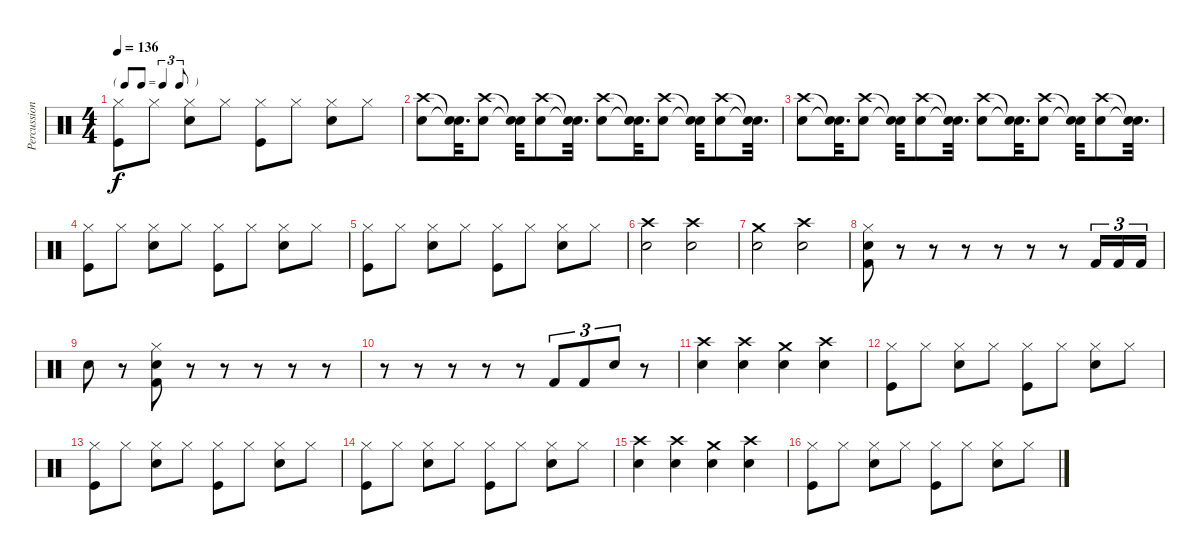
\track ("Percussion" "Percussion") {instrument percussion}
\staff {score}
\articulation defaults
\ts (4 4)
\tf triplet8th
\tempo 136
\clef neutral
\ks c
("Hi-Hat (closed)" "Kick (hit)").8{dy f} "Hi-Hat (closed)".8 ("Hi-Hat (closed)" "Snare (hit) 2").8 "Hi-Hat (closed)".8 ("Hi-Hat (closed)" "Kick (hit)").8 "Hi-Hat (closed)".8 ("Hi-Hat (closed)" "Snare (hit) 2").8 "Hi-Hat (closed)".8 |
("Crash high (hit)" "Snare (hit) 2").8 ("Snare (hit)"{t} "Snare (hit)"{t}).32{d} ("Crash high (hit)" "Snare (hit) 2").8 ("Snare (hit)"{t} "Snare (hit)"{t}).32 ("Crash high (hit)" "Snare (hit) 2").8 ("Snare (hit)"{t} "Snare (hit)"{t}).32{d} ("Crash high (hit)" "Snare (hit) 2").8 ("Snare (hit)"{t} "Snare (hit)"{t}).32{d} ("Crash high (hit)" "Snare (hit) 2").8 ("Snare (hit)"{t} "Snare (hit)"{t}).32 ("Crash high (hit)" "Snare (hit) 2").8 ("Snare (hit)"{t} "Snare (hit)"{t}).32{d} |
("Crash high (hit)" "Snare (hit) 2").8 ("Snare (hit)"{t} "Snare (hit)"{t}).32{d} ("Crash high (hit)" "Snare (hit) 2").8 ("Snare (hit)"{t} "Snare (hit)"{t}).32 ("Crash high (hit)" "Snare (hit) 2").8 ("Snare (hit)"{t} "Snare (hit)"{t}).32{d} ("Crash high (hit)" "Snare (hit) 2").8 ("Snare (hit)"{t} "Snare (hit)"{t}).32{d} ("Crash high (hit)" "Snare (hit) 2").8 ("Snare (hit)"{t} "Snare (hit)"{t}).32 ("Crash high (hit)" "Snare (hit) 2").8 ("Snare (hit)"{t} "Snare (hit)"{t}).32{d} |
("Hi-Hat (closed)" "Kick (hit)").8 "Hi-Hat (closed)".8 ("Hi-Hat (closed)" "Snare (hit) 2").8 "Hi-Hat (closed)".8 ("Hi-Hat (closed)" "Kick (hit)").8 "Hi-Hat (closed)".8 ("Hi-Hat (closed)" "Snare (hit) 2").8 "Hi-Hat (closed)".8 |
("Hi-Hat (closed)" "Kick (hit)").8 "Hi-Hat (closed)".8 ("Hi-Hat (closed)" "Snare (hit) 2").8 "Hi-Hat (closed)".8 ("Hi-Hat (closed)" "Kick (hit)").8 "Hi-Hat (closed)".8 ("Hi-Hat (closed)" "Snare (hit) 2").8 "Hi-Hat (closed)".8 |
("Crash high (hit)" "Snare (hit) 2").2 ("Crash high (hit)" "Snare (hit) 2").2 |
("Crash medium (hit)" "Snare (hit) 2").2 ("Crash high (hit)" "Snare (hit) 2").2 |
("Hi-Hat (closed)" "Snare (hit) 2" "Kick (hit) 2").8 r.8 r.8 r.8 r.8 r.8 r.8 "Kick (hit) 2".16{tu (3 2)} "Kick (hit) 2".16{tu (3 2)} "Kick (hit) 2".16{tu (3 2)} |
"Snare (hit) 2".8 r.8 ("Hi-Hat (closed)" "Snare (hit) 2" "Kick (hit) 2").8 r.8 r.8 r.8 r.8 r.8 |
r.8 r.8 r.8 r.8 r.8 "Kick (hit) 2".8{tu (3 2)} "Kick (hit) 2".8{tu (3 2)} "Snare (hit) 2".8{tu (3 2)} r.8 |
("Crash high (hit)" "Snare (hit) 2").4 ("Crash high (hit)" "Snare (hit) 2").4 ("Crash medium (hit)" "Snare (hit) 2").4 ("Crash high (hit)" "Snare (hit) 2").4 |
("Hi-Hat (closed)" "Kick (hit)").8 "Hi-Hat (closed)".8 ("Hi-Hat (closed)" "Snare (hit) 2").8 "Hi-Hat (closed)".8 ("Hi-Hat (closed)" "Kick (hit)").8 "Hi-Hat (closed)".8 ("Hi-Hat (closed)" "Snare (hit) 2").8 "Hi-Hat (closed)".8 |
("Hi-Hat (closed)" "Kick (hit)").8 "Hi-Hat (closed)".8 ("Hi-Hat (closed)" "Snare (hit) 2").8 "Hi-Hat (closed)".8 ("Hi-Hat (closed)" "Kick (hit)").8 "Hi-Hat (closed)".8 ("Hi-Hat (closed)" "Snare (hit) 2").8 "Hi-Hat (closed)".8 |
("Hi-Hat (closed)" "Kick (hit)").8 "Hi-Hat (closed)".8 ("Hi-Hat (closed)" "Snare (hit) 2").8 "Hi-Hat (closed)".8 ("Hi-Hat (closed)" "Kick (hit)").8 "Hi-Hat (closed)".8 ("Hi-Hat (closed)" "Snare (hit) 2").8 "Hi-Hat (closed)".8 |
("Crash high (hit)" "Snare (hit) 2").4 ("Crash high (hit)" "Snare (hit) 2").4 ("Crash medium (hit)" "Snare (hit) 2").4 ("Crash high (hit)" "Snare (hit) 2").4 |
("Hi-Hat (closed)" "Kick (hit)").8 "Hi-Hat (closed)".8 ("Hi-Hat (closed)" "Snare (hit) 2").8 "Hi-Hat (closed)".8 ("Hi-Hat (closed)" "Kick (hit)").8 "Hi-Hat (closed)".8 ("Hi-Hat (closed)" "Snare (hit) 2").8 "Hi-Hat (closed)".8
